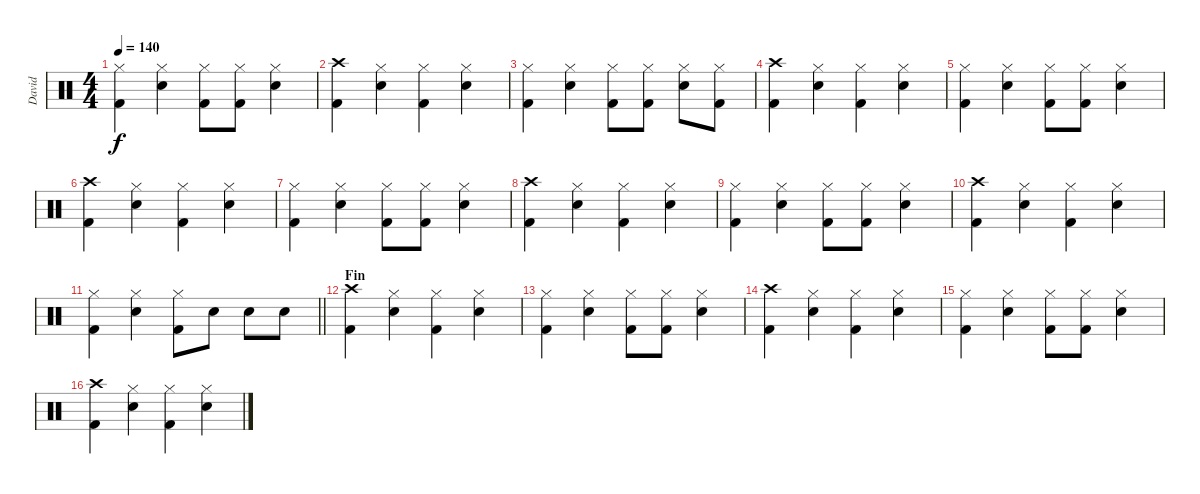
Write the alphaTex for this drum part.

\track ("David" "David") {instrument percussion}
\staff {score}
\articulation defaults
\ts (4 4)
\tempo 140
\clef neutral
\ks c
("Hi-Hat (closed)" "Kick (hit) 2").4{dy f} ("Hi-Hat (closed)" "Snare (hit) 2").4 ("Hi-Hat (closed)" "Kick (hit) 2").8 ("Hi-Hat (closed)" "Kick (hit) 2").8 ("Hi-Hat (closed)" "Snare (hit) 2").4 |
("Crash high (hit)" "Kick (hit) 2").4 ("Hi-Hat (closed)" "Snare (hit) 2").4 ("Hi-Hat (closed)" "Kick (hit) 2").4 ("Hi-Hat (closed)" "Snare (hit) 2").4 |
("Hi-Hat (closed)" "Kick (hit) 2").4 ("Hi-Hat (closed)" "Snare (hit) 2").4 ("Hi-Hat (closed)" "Kick (hit) 2").8 ("Hi-Hat (closed)" "Kick (hit) 2").8 ("Hi-Hat (closed)" "Snare (hit) 2").8 ("Hi-Hat (closed)" "Kick (hit) 2").8 |
("Crash high (hit)" "Kick (hit) 2").4 ("Hi-Hat (closed)" "Snare (hit) 2").4 ("Hi-Hat (closed)" "Kick (hit) 2").4 ("Hi-Hat (closed)" "Snare (hit) 2").4 |
("Hi-Hat (closed)" "Kick (hit) 2").4 ("Hi-Hat (closed)" "Snare (hit) 2").4 ("Hi-Hat (closed)" "Kick (hit) 2").8 ("Hi-Hat (closed)" "Kick (hit) 2").8 ("Hi-Hat (closed)" "Snare (hit) 2").4 |
("Crash high (hit)" "Kick (hit) 2").4 ("Hi-Hat (closed)" "Snare (hit) 2").4 ("Hi-Hat (closed)" "Kick (hit) 2").4 ("Hi-Hat (closed)" "Snare (hit) 2").4 |
("Hi-Hat (closed)" "Kick (hit) 2").4 ("Hi-Hat (closed)" "Snare (hit) 2").4 ("Hi-Hat (closed)" "Kick (hit) 2").8 ("Hi-Hat (closed)" "Kick (hit) 2").8 ("Hi-Hat (closed)" "Snare (hit) 2").4 |
("Crash high (hit)" "Kick (hit) 2").4 ("Hi-Hat (closed)" "Snare (hit) 2").4 ("Hi-Hat (closed)" "Kick (hit) 2").4 ("Hi-Hat (closed)" "Snare (hit) 2").4 |
("Hi-Hat (closed)" "Kick (hit) 2").4 ("Hi-Hat (closed)" "Snare (hit) 2").4 ("Hi-Hat (closed)" "Kick (hit) 2").8 ("Hi-Hat (closed)" "Kick (hit) 2").8 ("Hi-Hat (closed)" "Snare (hit) 2").4 |
("Crash high (hit)" "Kick (hit) 2").4 ("Hi-Hat (closed)" "Snare (hit) 2").4 ("Hi-Hat (closed)" "Kick (hit) 2").4 ("Hi-Hat (closed)" "Snare (hit) 2").4 |
\barLineRight lightlight
("Hi-Hat (closed)" "Kick (hit) 2").4 ("Hi-Hat (closed)" "Snare (hit) 2").4 ("Hi-Hat (closed)" "Kick (hit) 2").8 "Snare (hit) 2".8 "Snare (hit) 2".8 "Snare (hit) 2".8 |
\section ("" "Fin")
("Crash high (hit)" "Kick (hit) 2").4 ("Hi-Hat (closed)" "Snare (hit) 2").4 ("Hi-Hat (closed)" "Kick (hit) 2").4 ("Hi-Hat (closed)" "Snare (hit) 2").4 |
("Hi-Hat (closed)" "Kick (hit) 2").4 ("Hi-Hat (closed)" "Snare (hit) 2").4 ("Hi-Hat (closed)" "Kick (hit) 2").8 ("Hi-Hat (closed)" "Kick (hit) 2").8 ("Hi-Hat (closed)" "Snare (hit) 2").4 |
("Crash high (hit)" "Kick (hit) 2").4 ("Hi-Hat (closed)" "Snare (hit) 2").4 ("Hi-Hat (closed)" "Kick (hit) 2").4 ("Hi-Hat (closed)" "Snare (hit) 2").4 |
("Hi-Hat (closed)" "Kick (hit) 2").4 ("Hi-Hat (closed)" "Snare (hit) 2").4 ("Hi-Hat (closed)" "Kick (hit) 2").8 ("Hi-Hat (closed)" "Kick (hit) 2").8 ("Hi-Hat (closed)" "Snare (hit) 2").4 |
("Crash high (hit)" "Kick (hit) 2").4 ("Hi-Hat (closed)" "Snare (hit) 2").4 ("Hi-Hat (closed)" "Kick (hit) 2").4 ("Hi-Hat (closed)" "Snare (hit) 2").4
